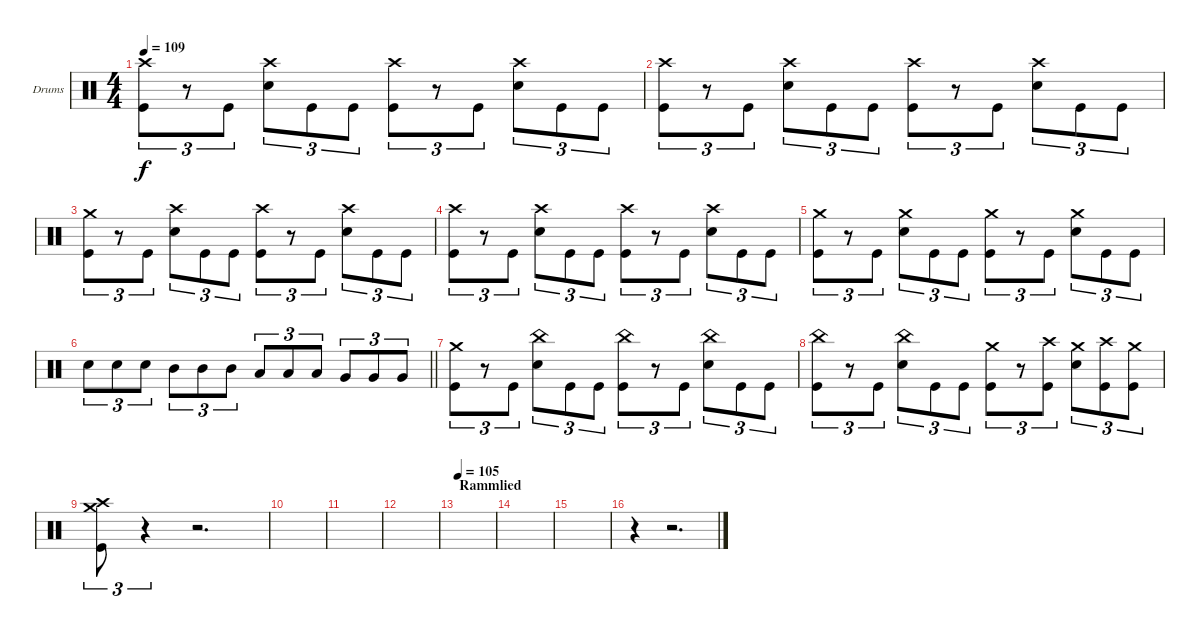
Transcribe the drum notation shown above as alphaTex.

\bracketExtendMode groupsimilarinstruments
\firstSystemTrackNameOrientation horizontal
\otherSystemsTrackNameOrientation horizontal
\track ("Drumkit (Christoph)" "Drums") {instrument percussion}
\staff {score}
\articulation defaults
\ts (4 4)
\tempo 109
\clef neutral
\ks c
("Crash high (hit)" "Kick (hit)").8{tu (3 2) dy f} r.8{tu (3 2)} "Kick (hit)".8{tu (3 2)} ("Crash high (hit)" "Snare (hit) 2").8{tu (3 2)} "Kick (hit)".8{tu (3 2)} "Kick (hit)".8{tu (3 2)} ("Crash high (hit)" "Kick (hit)").8{tu (3 2)} r.8{tu (3 2)} "Kick (hit)".8{tu (3 2)} ("Crash high (hit)" "Snare (hit) 2").8{tu (3 2)} "Kick (hit)".8{tu (3 2)} "Kick (hit)".8{tu (3 2)} |
("Crash high (hit)" "Kick (hit)").8{tu (3 2)} r.8{tu (3 2)} "Kick (hit)".8{tu (3 2)} ("Crash high (hit)" "Snare (hit) 2").8{tu (3 2)} "Kick (hit)".8{tu (3 2)} "Kick (hit)".8{tu (3 2)} ("Crash high (hit)" "Kick (hit)").8{tu (3 2)} r.8{tu (3 2)} "Kick (hit)".8{tu (3 2)} ("Crash high (hit)" "Snare (hit) 2").8{tu (3 2)} "Kick (hit)".8{tu (3 2)} "Kick (hit)".8{tu (3 2)} |
("Crash medium (hit)" "Kick (hit)").8{tu (3 2)} r.8{tu (3 2)} "Kick (hit)".8{tu (3 2)} ("Crash high (hit)" "Snare (hit) 2").8{tu (3 2)} "Kick (hit)".8{tu (3 2)} "Kick (hit)".8{tu (3 2)} ("Crash high (hit)" "Kick (hit)").8{tu (3 2)} r.8{tu (3 2)} "Kick (hit)".8{tu (3 2)} ("Crash high (hit)" "Snare (hit) 2").8{tu (3 2)} "Kick (hit)".8{tu (3 2)} "Kick (hit)".8{tu (3 2)} |
("Crash high (hit)" "Kick (hit)").8{tu (3 2)} r.8{tu (3 2)} "Kick (hit)".8{tu (3 2)} ("Crash high (hit)" "Snare (hit) 2").8{tu (3 2)} "Kick (hit)".8{tu (3 2)} "Kick (hit)".8{tu (3 2)} ("Crash high (hit)" "Kick (hit)").8{tu (3 2)} r.8{tu (3 2)} "Kick (hit)".8{tu (3 2)} ("Crash high (hit)" "Snare (hit) 2").8{tu (3 2)} "Kick (hit)".8{tu (3 2)} "Kick (hit)".8{tu (3 2)} |
("Crash medium (hit)" "Kick (hit)").8{tu (3 2)} r.8{tu (3 2)} "Kick (hit)".8{tu (3 2)} ("Crash medium (hit)" "Snare (hit) 2").8{tu (3 2)} "Kick (hit)".8{tu (3 2)} "Kick (hit)".8{tu (3 2)} ("Crash medium (hit)" "Kick (hit)").8{tu (3 2)} r.8{tu (3 2)} "Kick (hit)".8{tu (3 2)} ("Crash medium (hit)" "Snare (hit) 2").8{tu (3 2)} "Kick (hit)".8{tu (3 2)} "Kick (hit)".8{tu (3 2)} |
\barLineRight lightlight "Snare (hit) 2".8{tu (3 2)} "Snare (hit) 2".8{tu (3 2)} "Snare (hit) 2".8{tu (3 2)} "Mid Tom (hit)".8{tu (3 2)} "Mid Tom (hit)".8{tu (3 2)} "Mid Tom (hit)".8{tu (3 2)} "Low Tom (hit)".8{tu (3 2)} "Low Tom (hit)".8{tu (3 2)} "Low Tom (hit)".8{tu (3 2)} "Very Low Tom (hit)".8{tu (3 2)} "Very Low Tom (hit)".8{tu (3 2)} "Very Low Tom (hit)".8{tu (3 2)}
|
("Crash medium (hit)" "Kick (hit)").8{tu (3 2)} r.8{tu (3 2)} "Kick (hit)".8{tu (3 2)} ("China (hit)" "Snare (hit) 2").8{tu (3 2)} "Kick (hit)".8{tu (3 2)} "Kick (hit)".8{tu (3 2)} ("China (hit)" "Kick (hit)").8{tu (3 2)} r.8{tu (3 2)} "Kick (hit)".8{tu (3 2)} ("China (hit)" "Snare (hit) 2").8{tu (3 2)} "Kick (hit)".8{tu (3 2)} "Kick (hit)".8{tu (3 2)} |
("China (hit)" "Kick (hit)").8{tu (3 2)} r.8{tu (3 2)} "Kick (hit)".8{tu (3 2)} ("China (hit)" "Snare (hit) 2").8{tu (3 2)} "Kick (hit)".8{tu (3 2)} "Kick (hit)".8{tu (3 2)} ("Crash medium (hit)" "Kick (hit)").8{tu (3 2)} r.8{tu (3 2)} ("Crash high (hit)" "Kick (hit)").8{tu (3 2)} ("Crash medium (hit)" "Snare (hit) 2").8{tu (3 2)} ("Crash high (hit)" "Kick (hit)").8{tu (3 2)} ("Crash medium (hit)" "Kick (hit)").8{tu (3 2)} |
("Crash high (hit)" "Crash medium (hit)" "Kick (hit)").8{tu (3 2)} r.4{tu (3 2)} r.2{d} |
|
|
|
\section ("" "Rammlied")
\tempo 105
|
|
|
r.4 r.2{d}
